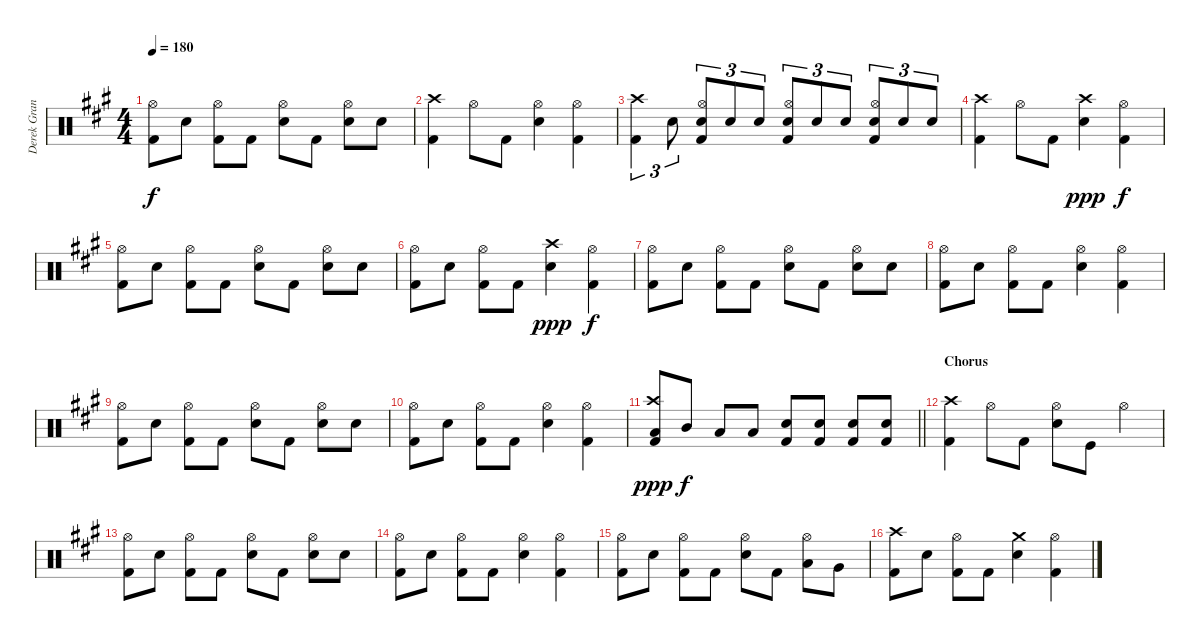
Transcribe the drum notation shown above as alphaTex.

\track ("Derek Grant - Drums" "Derek Gran") {instrument percussion}
\staff {score}
\articulation defaults
\ts (4 4)
\tempo 180
\clef neutral
\ks a
("Kick (hit) 2" "Hi-Hat (open)").8{dy f} "Snare (hit) 2".8 ("Kick (hit) 2" "Hi-Hat (open)").8 "Kick (hit) 2".8 ("Snare (hit) 2" "Hi-Hat (open)").8 "Kick (hit) 2".8 ("Snare (hit) 2" "Hi-Hat (open)").8 "Snare (hit) 2".8 |
("Kick (hit) 2" "Crash high (hit)").4 "Hi-Hat (open)".8 "Kick (hit) 2".8 ("Snare (hit) 2" "Hi-Hat (open)").4 ("Kick (hit) 2" "Hi-Hat (open)").4 |
("Crash high (hit)" "Kick (hit) 2").4{tu (3 2)} "Snare (hit) 2".8{tu (3 2)} ("Snare (hit) 2" "Hi-Hat (open)" "Kick (hit) 2").8{tu (3 2)} "Snare (hit) 2".8{tu (3 2)} "Snare (hit) 2".8{tu (3 2)} ("Snare (hit) 2" "Hi-Hat (open)" "Kick (hit) 2").8{tu (3 2)} "Snare (hit) 2".8{tu (3 2)} "Snare (hit) 2".8{tu (3 2)} ("Hi-Hat (open)" "Kick (hit) 2" "Snare (hit) 2").8{tu (3 2)} "Snare (hit) 2".8{tu (3 2)} "Snare (hit) 2".8{tu (3 2)} |
("Kick (hit) 2" "Crash high (hit)").4 "Hi-Hat (open)".8 "Kick (hit) 2".8 ("Snare (hit) 2" "Crash high (hit)").4{dy ppp} ("Kick (hit) 2" "Hi-Hat (open)").4{dy f} |
("Kick (hit) 2" "Hi-Hat (open)").8 "Snare (hit) 2".8 ("Kick (hit) 2" "Hi-Hat (open)").8 "Kick (hit) 2".8 ("Snare (hit) 2" "Hi-Hat (open)").8 "Kick (hit) 2".8 ("Snare (hit) 2" "Hi-Hat (open)").8 "Snare (hit) 2".8 |
("Kick (hit) 2" "Hi-Hat (open)").8 "Snare (hit) 2".8 ("Kick (hit) 2" "Hi-Hat (open)").8 "Kick (hit) 2".8 ("Snare (hit) 2" "Crash high (hit)").4{dy ppp} ("Kick (hit) 2" "Hi-Hat (open)").4{dy f} |
("Kick (hit) 2" "Hi-Hat (open)").8 "Snare (hit) 2".8 ("Kick (hit) 2" "Hi-Hat (open)").8 "Kick (hit) 2".8 ("Snare (hit) 2" "Hi-Hat (open)").8 "Kick (hit) 2".8 ("Snare (hit) 2" "Hi-Hat (open)").8 "Snare (hit) 2".8 |
("Kick (hit) 2" "Hi-Hat (open)").8 "Snare (hit) 2".8 ("Kick (hit) 2" "Hi-Hat (open)").8 "Kick (hit) 2".8 ("Snare (hit) 2" "Hi-Hat (open)").4 ("Kick (hit) 2" "Hi-Hat (open)").4 |
("Kick (hit) 2" "Hi-Hat (open)").8 "Snare (hit) 2".8 ("Kick (hit) 2" "Hi-Hat (open)").8 "Kick (hit) 2".8 ("Snare (hit) 2" "Hi-Hat (open)").8 "Kick (hit) 2".8 ("Snare (hit) 2" "Hi-Hat (open)").8 "Snare (hit) 2".8 |
("Kick (hit) 2" "Hi-Hat (open)").8 "Snare (hit) 2".8 ("Kick (hit) 2" "Hi-Hat (open)").8 "Kick (hit) 2".8 ("Snare (hit) 2" "Hi-Hat (open)").4 ("Kick (hit) 2" "Hi-Hat (open)").4 |
\barLineRight lightlight
("Low Tom (hit)" "Kick (hit) 2" "Crash high (hit)").8{dy ppp} "Mid Tom (hit)".8{dy f} "Low Tom (hit)".8 "Low Tom (hit)".8 ("Kick (hit) 2" "Snare (hit) 2").8 ("Kick (hit) 2" "Snare (hit) 2").8 ("Kick (hit) 2" "Snare (hit) 2").8 ("Kick (hit) 2" "Snare (hit) 2").8 |
\section ("" "Chorus")
("Kick (hit) 2" "Crash high (hit)").4 "Hi-Hat (open)".8 "Kick (hit) 2".8 ("Snare (hit) 2" "Hi-Hat (open)").8 "Kick (hit)".8 "Hi-Hat (open)".4 |
("Kick (hit) 2" "Hi-Hat (open)").8 "Snare (hit) 2".8 ("Kick (hit) 2" "Hi-Hat (open)").8 "Kick (hit) 2".8 ("Snare (hit) 2" "Hi-Hat (open)").8 "Kick (hit) 2".8 ("Snare (hit) 2" "Hi-Hat (open)").8 "Snare (hit) 2".8 |
("Kick (hit) 2" "Hi-Hat (open)").8 "Snare (hit) 2".8 ("Kick (hit) 2" "Hi-Hat (open)").8 "Kick (hit) 2".8 ("Snare (hit) 2" "Hi-Hat (open)").4 ("Kick (hit) 2" "Hi-Hat (open)").4 |
("Kick (hit) 2" "Hi-Hat (open)").8 "Snare (hit) 2".8 ("Kick (hit) 2" "Hi-Hat (open)").8 "Kick (hit) 2".8 ("Snare (hit) 2" "Hi-Hat (open)").8 "Kick (hit) 2".8 ("Low Tom (hit)" "Hi-Hat (open)").8 "Very Low Tom (hit)".8 |
("Kick (hit) 2" "Crash high (hit)").8 "Snare (hit) 2".8 ("Kick (hit) 2" "Hi-Hat (open)").8 "Kick (hit) 2".8 ("Snare (hit) 2" "Crash medium (hit)").4 ("Kick (hit) 2" "Hi-Hat (open)").4
